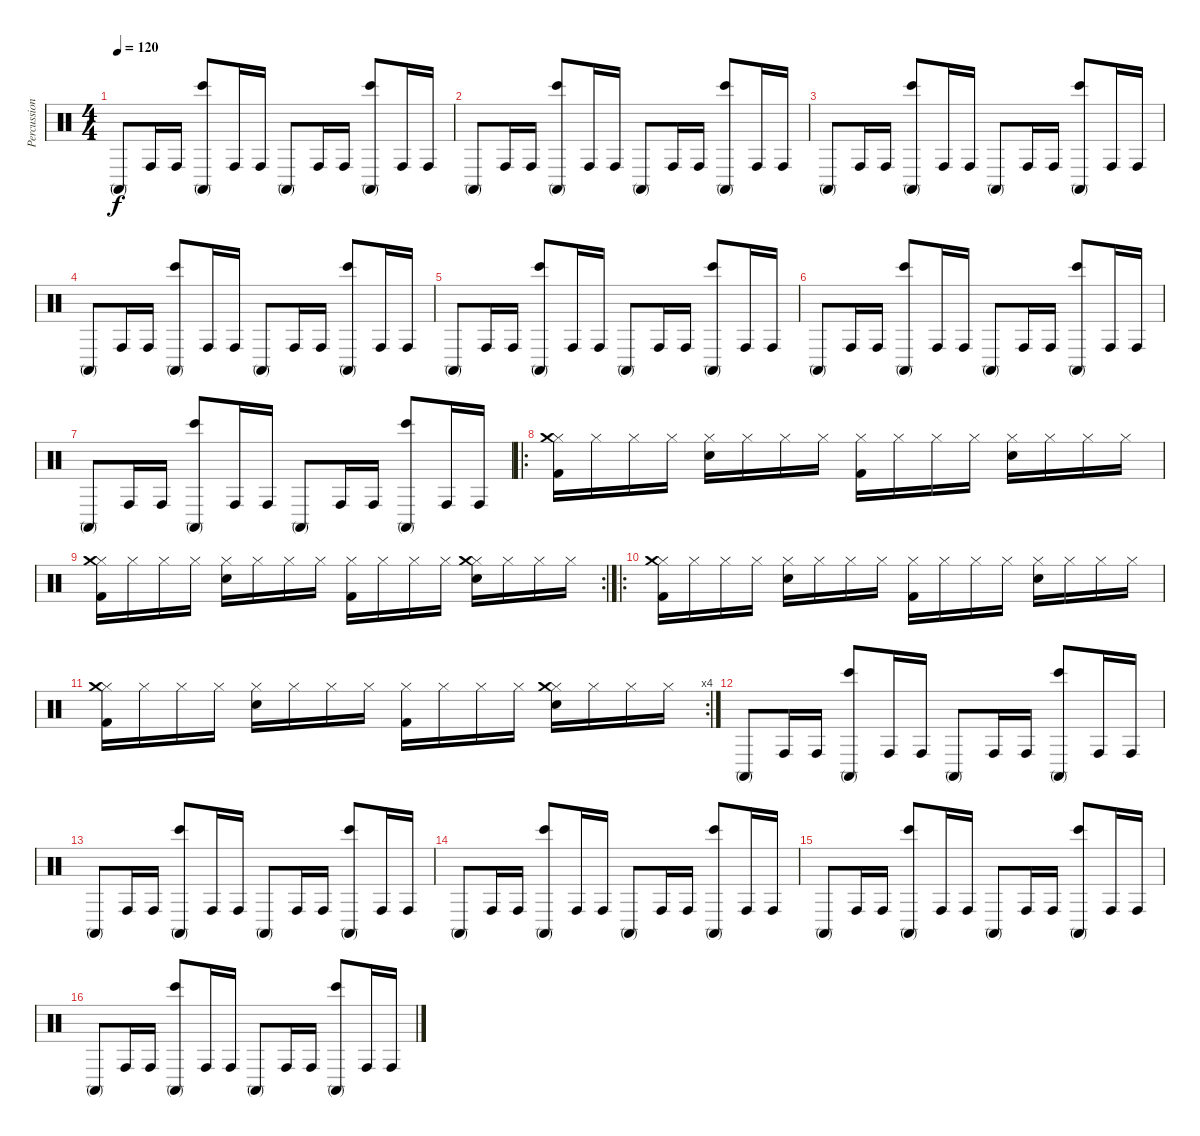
\track ("Percussions" "Percussion") {instrument percussion}
\staff {score}
\articulation defaults
\ts (4 4)
\tempo 120
\clef neutral
\ks c "Conga high (mute)".8{dy f} "Conga high (hit)".16 "Conga high (hit)".16
("Conga high (mute)" "Bongo High (hit)").8 "Conga high (hit)".16 "Conga high (hit)".16 "Conga high (mute)".8 "Conga high (hit)".16 "Conga high (hit)".16 ("Conga high (mute)" "Bongo High (hit)").8 "Conga high (hit)".16 "Conga high (hit)".16 |
"Conga high (mute)".8 "Conga high (hit)".16 "Conga high (hit)".16 ("Conga high (mute)" "Bongo High (hit)").8 "Conga high (hit)".16 "Conga high (hit)".16 "Conga high (mute)".8 "Conga high (hit)".16 "Conga high (hit)".16 ("Conga high (mute)" "Bongo High (hit)").8 "Conga high (hit)".16 "Conga high (hit)".16 |
"Conga high (mute)".8 "Conga high (hit)".16 "Conga high (hit)".16 ("Conga high (mute)" "Bongo High (hit)").8 "Conga high (hit)".16 "Conga high (hit)".16 "Conga high (mute)".8 "Conga high (hit)".16 "Conga high (hit)".16 ("Conga high (mute)" "Bongo High (hit)").8 "Conga high (hit)".16 "Conga high (hit)".16 |
"Conga high (mute)".8 "Conga high (hit)".16 "Conga high (hit)".16 ("Conga high (mute)" "Bongo High (hit)").8 "Conga high (hit)".16 "Conga high (hit)".16 "Conga high (mute)".8 "Conga high (hit)".16 "Conga high (hit)".16 ("Conga high (mute)" "Bongo High (hit)").8 "Conga high (hit)".16 "Conga high (hit)".16 |
"Conga high (mute)".8 "Conga high (hit)".16 "Conga high (hit)".16 ("Conga high (mute)" "Bongo High (hit)").8 "Conga high (hit)".16 "Conga high (hit)".16 "Conga high (mute)".8 "Conga high (hit)".16 "Conga high (hit)".16 ("Conga high (mute)" "Bongo High (hit)").8 "Conga high (hit)".16 "Conga high (hit)".16 |
"Conga high (mute)".8 "Conga high (hit)".16 "Conga high (hit)".16 ("Conga high (mute)" "Bongo High (hit)").8 "Conga high (hit)".16 "Conga high (hit)".16 "Conga high (mute)".8 "Conga high (hit)".16 "Conga high (hit)".16 ("Conga high (mute)" "Bongo High (hit)").8 "Conga high (hit)".16 "Conga high (hit)".16 |
"Conga high (mute)".8 "Conga high (hit)".16 "Conga high (hit)".16 ("Conga high (mute)" "Bongo High (hit)").8 "Conga high (hit)".16 "Conga high (hit)".16 "Conga high (mute)".8 "Conga high (hit)".16 "Conga high (hit)".16 ("Conga high (mute)" "Bongo High (hit)").8 "Conga high (hit)".16 "Conga high (hit)".16 |
\ro
("Kick (hit) 2" "Hi-Hat (closed)" "Crash medium (hit)").16 "Hi-Hat (closed)".16 "Hi-Hat (closed)".16 "Hi-Hat (closed)".16 ("Hi-Hat (closed)" "Electric Snare (hit)").16 "Hi-Hat (closed)".16 "Hi-Hat (closed)".16 "Hi-Hat (closed)".16 ("Kick (hit) 2" "Hi-Hat (closed)").16 "Hi-Hat (closed)".16 "Hi-Hat (closed)".16 "Hi-Hat (closed)".16 ("Hi-Hat (closed)" "Electric Snare (hit)").16 "Hi-Hat (closed)".16 "Hi-Hat (closed)".16 "Hi-Hat (closed)".16 |
\rc 2
("Kick (hit) 2" "Hi-Hat (closed)" "Crash medium (hit)").16 "Hi-Hat (closed)".16 "Hi-Hat (closed)".16 "Hi-Hat (closed)".16 ("Hi-Hat (closed)" "Electric Snare (hit)").16 "Hi-Hat (closed)".16 "Hi-Hat (closed)".16 "Hi-Hat (closed)".16 ("Kick (hit) 2" "Hi-Hat (closed)").16 "Hi-Hat (closed)".16 "Hi-Hat (closed)".16 "Hi-Hat (closed)".16 ("Hi-Hat (closed)" "Crash medium (hit)" "Electric Snare (hit)").16 "Hi-Hat (closed)".16 "Hi-Hat (closed)".16 "Hi-Hat (closed)".16 |
\ro
("Kick (hit) 2" "Hi-Hat (closed)" "Crash medium (hit)").16 "Hi-Hat (closed)".16 "Hi-Hat (closed)".16 "Hi-Hat (closed)".16 ("Hi-Hat (closed)" "Electric Snare (hit)").16 "Hi-Hat (closed)".16 "Hi-Hat (closed)".16 "Hi-Hat (closed)".16 ("Kick (hit) 2" "Hi-Hat (closed)").16 "Hi-Hat (closed)".16 "Hi-Hat (closed)".16 "Hi-Hat (closed)".16 ("Hi-Hat (closed)" "Electric Snare (hit)").16 "Hi-Hat (closed)".16 "Hi-Hat (closed)".16 "Hi-Hat (closed)".16 |
\rc 4
("Kick (hit) 2" "Hi-Hat (closed)" "Crash medium (hit)").16 "Hi-Hat (closed)".16 "Hi-Hat (closed)".16 "Hi-Hat (closed)".16 ("Hi-Hat (closed)" "Electric Snare (hit)").16 "Hi-Hat (closed)".16 "Hi-Hat (closed)".16 "Hi-Hat (closed)".16 ("Kick (hit) 2" "Hi-Hat (closed)").16 "Hi-Hat (closed)".16 "Hi-Hat (closed)".16 "Hi-Hat (closed)".16 ("Hi-Hat (closed)" "Crash medium (hit)" "Electric Snare (hit)").16 "Hi-Hat (closed)".16 "Hi-Hat (closed)".16 "Hi-Hat (closed)".16 |
"Conga high (mute)".8 "Conga high (hit)".16 "Conga high (hit)".16 ("Conga high (mute)" "Bongo High (hit)").8 "Conga high (hit)".16 "Conga high (hit)".16 "Conga high (mute)".8 "Conga high (hit)".16 "Conga high (hit)".16 ("Conga high (mute)" "Bongo High (hit)").8 "Conga high (hit)".16 "Conga high (hit)".16 |
"Conga high (mute)".8 "Conga high (hit)".16 "Conga high (hit)".16 ("Conga high (mute)" "Bongo High (hit)").8 "Conga high (hit)".16 "Conga high (hit)".16 "Conga high (mute)".8 "Conga high (hit)".16 "Conga high (hit)".16 ("Conga high (mute)" "Bongo High (hit)").8 "Conga high (hit)".16 "Conga high (hit)".16 |
"Conga high (mute)".8 "Conga high (hit)".16 "Conga high (hit)".16 ("Conga high (mute)" "Bongo High (hit)").8 "Conga high (hit)".16 "Conga high (hit)".16 "Conga high (mute)".8 "Conga high (hit)".16 "Conga high (hit)".16 ("Conga high (mute)" "Bongo High (hit)").8 "Conga high (hit)".16 "Conga high (hit)".16 |
"Conga high (mute)".8 "Conga high (hit)".16 "Conga high (hit)".16 ("Conga high (mute)" "Bongo High (hit)").8 "Conga high (hit)".16 "Conga high (hit)".16 "Conga high (mute)".8 "Conga high (hit)".16 "Conga high (hit)".16 ("Conga high (mute)" "Bongo High (hit)").8 "Conga high (hit)".16 "Conga high (hit)".16 |
"Conga high (mute)".8 "Conga high (hit)".16 "Conga high (hit)".16 ("Conga high (mute)" "Bongo High (hit)").8 "Conga high (hit)".16 "Conga high (hit)".16 "Conga high (mute)".8 "Conga high (hit)".16 "Conga high (hit)".16 ("Conga high (mute)" "Bongo High (hit)").8 "Conga high (hit)".16 "Conga high (hit)".16
